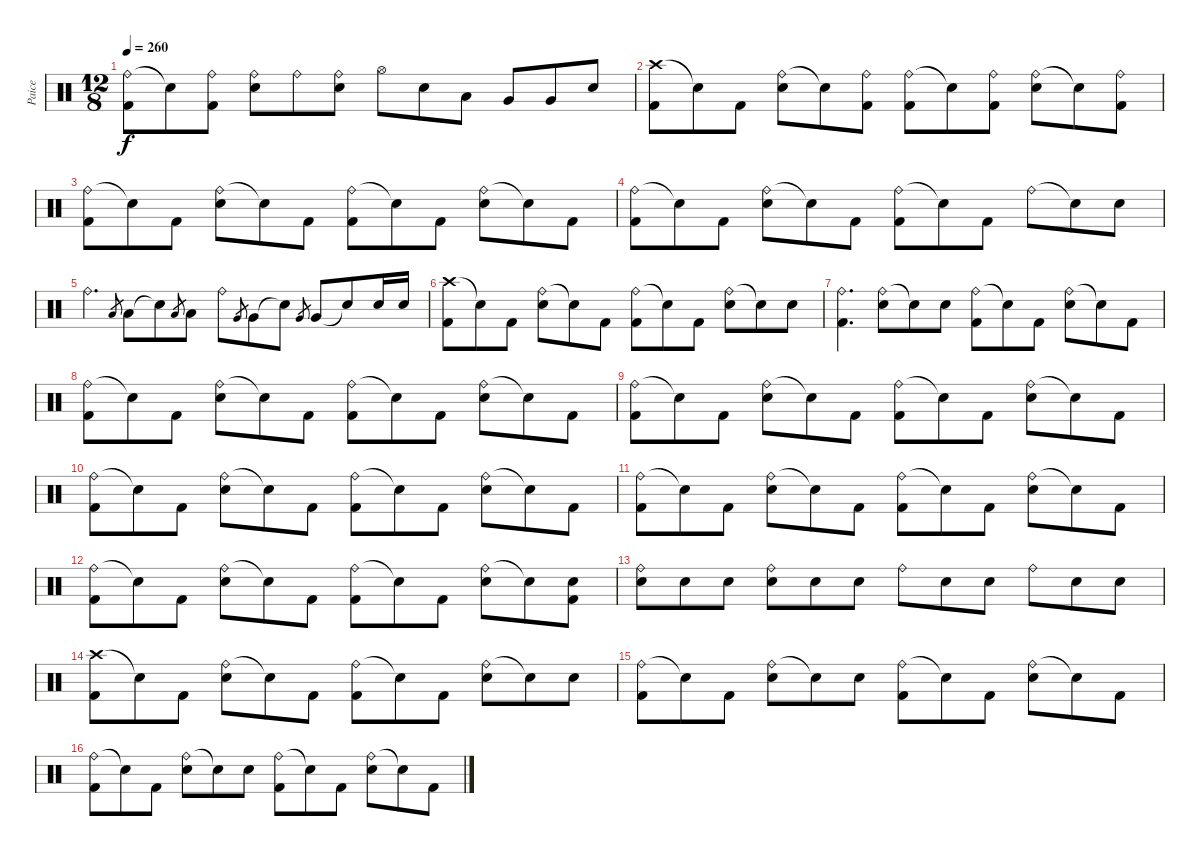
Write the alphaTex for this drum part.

\track ("Paice" "Paice") {instrument percussion}
\staff {score}
\articulation defaults
\ts (12 8)
\tempo 260
\clef neutral
\ks c
("Ride (bell)" "Kick (hit) 2").8{dy f} "Snare (hit)"{t}.8 ("Ride (bell)" "Kick (hit) 2").8 ("Ride (bell)" "Electric Snare (hit)").8 "Ride (bell)".8 ("Ride (bell)" "Electric Snare (hit)").8 "Hi-Hat (open)".8 "Electric Snare (hit)".8 "Low Tom (hit)".8 "Very Low Tom (hit)".8 "Very Low Tom (hit)".8 "Electric Snare (hit)".8 |
("Crash high (hit)" "Kick (hit) 2").8 "Snare (hit)"{t}.8 "Kick (hit) 2".8 ("Ride (bell)" "Electric Snare (hit)").8 "Snare (hit)"{t}.8 ("Ride (bell)" "Kick (hit) 2").8 ("Ride (bell)" "Kick (hit) 2").8 "Snare (hit)"{t}.8 ("Ride (bell)" "Kick (hit) 2").8 ("Ride (bell)" "Electric Snare (hit)").8 "Snare (hit)"{t}.8 ("Ride (bell)" "Kick (hit) 2").8 |
("Ride (bell)" "Kick (hit) 2").8 "Snare (hit)"{t}.8 "Kick (hit) 2".8 ("Ride (bell)" "Electric Snare (hit)").8 "Snare (hit)"{t}.8 "Kick (hit) 2".8 ("Ride (bell)" "Kick (hit) 2").8 "Snare (hit)"{t}.8 "Kick (hit) 2".8 ("Ride (bell)" "Electric Snare (hit)").8 "Snare (hit)"{t}.8 "Kick (hit) 2".8 |
("Ride (bell)" "Kick (hit) 2").8 "Snare (hit)"{t}.8 "Kick (hit) 2".8 ("Ride (bell)" "Electric Snare (hit)").8 "Snare (hit)"{t}.8 "Kick (hit) 2".8 ("Ride (bell)" "Kick (hit) 2").8 "Snare (hit)"{t}.8 "Kick (hit) 2".8 "Ride (bell)".8 "Snare (hit)"{t}.8 "Electric Snare (hit)".8 |
"Ride (bell)".4{d} "Low Tom (hit)".8{gr} "Low Tom (hit)".8 "Snare (hit)"{t}.8 "Low Tom (hit)".8{gr} "Low Tom (hit)".8 "Ride (bell)".8 "Very Low Tom (hit)".8{gr} "Very Low Tom (hit)".8 "Snare (hit)"{t}.8 "Very Low Tom (hit)".8{gr} "Very Low Tom (hit)".8 "Snare (hit)"{t}.8 "Electric Snare (hit)".16 "Electric Snare (hit)".16 |
("Crash high (hit)" "Kick (hit) 2").8 "Snare (hit)"{t}.8 "Kick (hit) 2".8 ("Ride (bell)" "Electric Snare (hit)").8 "Snare (hit)"{t}.8 "Kick (hit) 2".8 ("Ride (bell)" "Kick (hit) 2").8 "Snare (hit)"{t}.8 "Kick (hit) 2".8 ("Ride (bell)" "Electric Snare (hit)").8 "Snare (hit)"{t}.8 "Electric Snare (hit)".8 |
("Ride (bell)" "Kick (hit) 2").4{d} ("Ride (bell)" "Electric Snare (hit)").8 "Snare (hit)"{t}.8 "Electric Snare (hit)".8 ("Ride (bell)" "Kick (hit) 2").8 "Snare (hit)"{t}.8 "Kick (hit) 2".8 ("Ride (bell)" "Electric Snare (hit)").8 "Snare (hit)"{t}.8 "Kick (hit) 2".8 |
("Ride (bell)" "Kick (hit) 2").8 "Snare (hit)"{t}.8 "Kick (hit) 2".8 ("Ride (bell)" "Electric Snare (hit)").8 "Snare (hit)"{t}.8 "Kick (hit) 2".8 ("Ride (bell)" "Kick (hit) 2").8 "Snare (hit)"{t}.8 "Kick (hit) 2".8 ("Ride (bell)" "Electric Snare (hit)").8 "Snare (hit)"{t}.8 "Kick (hit) 2".8 |
("Ride (bell)" "Kick (hit) 2").8 "Snare (hit)"{t}.8 "Kick (hit) 2".8 ("Ride (bell)" "Electric Snare (hit)").8 "Snare (hit)"{t}.8 "Kick (hit) 2".8 ("Ride (bell)" "Kick (hit) 2").8 "Snare (hit)"{t}.8 "Kick (hit) 2".8 ("Ride (bell)" "Electric Snare (hit)").8 "Snare (hit)"{t}.8 "Kick (hit) 2".8 |
("Ride (bell)" "Kick (hit) 2").8 "Snare (hit)"{t}.8 "Kick (hit) 2".8 ("Ride (bell)" "Electric Snare (hit)").8 "Snare (hit)"{t}.8 "Kick (hit) 2".8 ("Ride (bell)" "Kick (hit) 2").8 "Snare (hit)"{t}.8 "Kick (hit) 2".8 ("Ride (bell)" "Electric Snare (hit)").8 "Snare (hit)"{t}.8 "Kick (hit) 2".8 |
("Ride (bell)" "Kick (hit) 2").8 "Snare (hit)"{t}.8 "Kick (hit) 2".8 ("Ride (bell)" "Electric Snare (hit)").8 "Snare (hit)"{t}.8 "Kick (hit) 2".8 ("Ride (bell)" "Kick (hit) 2").8 "Snare (hit)"{t}.8 "Kick (hit) 2".8 ("Ride (bell)" "Electric Snare (hit)").8 "Snare (hit)"{t}.8 "Kick (hit) 2".8 |
("Ride (bell)" "Kick (hit) 2").8 "Snare (hit)"{t}.8 "Kick (hit) 2".8 ("Ride (bell)" "Electric Snare (hit)").8 "Snare (hit)"{t}.8 "Kick (hit) 2".8 ("Ride (bell)" "Kick (hit) 2").8 "Snare (hit)"{t}.8 "Kick (hit) 2".8 ("Ride (bell)" "Electric Snare (hit)").8 "Snare (hit)"{t}.8 ("Electric Snare (hit)" "Kick (hit) 2").8 |
("Ride (bell)" "Electric Snare (hit)").8 "Electric Snare (hit)".8 "Electric Snare (hit)".8 ("Ride (bell)" "Electric Snare (hit)").8 "Electric Snare (hit)".8 "Electric Snare (hit)".8 "Ride (bell)".8 "Electric Snare (hit)".8 "Electric Snare (hit)".8 "Ride (bell)".8 "Electric Snare (hit)".8 "Electric Snare (hit)".8 |
("Crash high (hit)" "Kick (hit) 2").8 "Snare (hit)"{t}.8 "Kick (hit) 2".8 ("Ride (bell)" "Electric Snare (hit)").8 "Snare (hit)"{t}.8 "Kick (hit) 2".8 ("Ride (bell)" "Kick (hit) 2").8 "Snare (hit)"{t}.8 "Kick (hit) 2".8 ("Ride (bell)" "Electric Snare (hit)").8 "Snare (hit)"{t}.8 "Electric Snare (hit)".8 |
("Ride (bell)" "Kick (hit) 2").8 "Snare (hit)"{t}.8 "Kick (hit) 2".8 ("Ride (bell)" "Electric Snare (hit)").8 "Snare (hit)"{t}.8 "Electric Snare (hit)".8 ("Ride (bell)" "Kick (hit) 2").8 "Snare (hit)"{t}.8 "Kick (hit) 2".8 ("Ride (bell)" "Electric Snare (hit)").8 "Snare (hit)"{t}.8 "Kick (hit) 2".8 |
("Ride (bell)" "Kick (hit) 2").8 "Snare (hit)"{t}.8 "Kick (hit) 2".8 ("Ride (bell)" "Electric Snare (hit)").8 "Snare (hit)"{t}.8 "Electric Snare (hit)".8 ("Ride (bell)" "Kick (hit) 2").8 "Snare (hit)"{t}.8 "Kick (hit) 2".8 ("Ride (bell)" "Electric Snare (hit)").8 "Snare (hit)"{t}.8 "Kick (hit) 2".8
